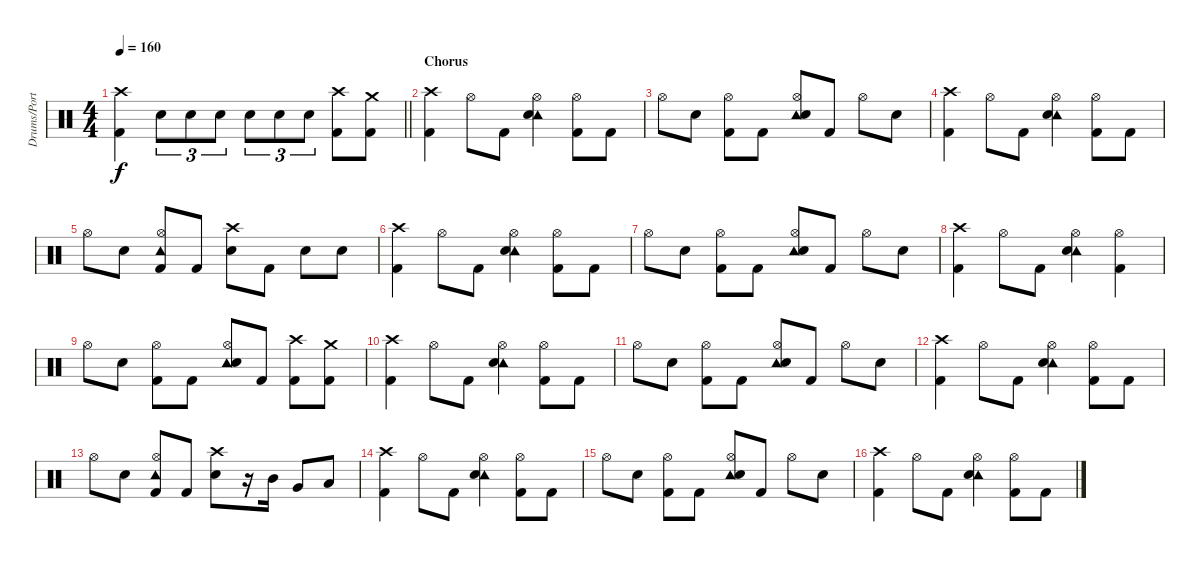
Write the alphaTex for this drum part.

\track ("Drums/Portnoy" "Drums/Port") {instrument percussion}
\staff {score}
\articulation defaults
\ts (4 4)
\tempo 160
\clef neutral
\barLineRight lightlight
\ks c
("Crash high (hit)" "Kick (hit) 2").4{dy f} "Electric Snare (hit)".8{tu (3 2)} "Electric Snare (hit)".8{tu (3 2)} "Electric Snare (hit)".8{tu (3 2)} "Electric Snare (hit)".8{tu (3 2)} "Electric Snare (hit)".8{tu (3 2)} "Electric Snare (hit)".8{tu (3 2)} ("Crash high (hit)" "Kick (hit) 2").8 ("Crash medium (hit)" "Kick (hit) 2").8 |
\section ("" "Chorus")
("Crash high (hit)" "Kick (hit) 2").4 "Hi-Hat (open)".8 "Kick (hit) 2".8 ("Tambourine (hit)" "Hi-Hat (open)" "Electric Snare (hit)").4 ("Hi-Hat (open)" "Kick (hit) 2").8 "Kick (hit) 2".8 |
"Hi-Hat (open)".8 "Electric Snare (hit)".8 ("Hi-Hat (open)" "Kick (hit) 2").8 "Kick (hit) 2".8 ("Tambourine (hit)" "Hi-Hat (open)" "Electric Snare (hit)").8 "Kick (hit) 2".8 "Hi-Hat (open)".8 "Electric Snare (hit)".8 |
("Crash high (hit)" "Kick (hit) 2").4 "Hi-Hat (open)".8 "Kick (hit) 2".8 ("Tambourine (hit)" "Hi-Hat (open)" "Electric Snare (hit)").4 ("Hi-Hat (open)" "Kick (hit) 2").8 "Kick (hit) 2".8 |
"Hi-Hat (open)".8 "Electric Snare (hit)".8 ("Tambourine (hit)" "Hi-Hat (open)" "Kick (hit) 2").8 "Kick (hit) 2".8 ("Crash high (hit)" "Electric Snare (hit)").8 "Kick (hit) 2".8 "Electric Snare (hit)".8 "Electric Snare (hit)".8 |
("Crash high (hit)" "Kick (hit) 2").4 "Hi-Hat (open)".8 "Kick (hit) 2".8 ("Tambourine (hit)" "Hi-Hat (open)" "Electric Snare (hit)").4 ("Hi-Hat (open)" "Kick (hit) 2").8 "Kick (hit) 2".8 |
"Hi-Hat (open)".8 "Electric Snare (hit)".8 ("Hi-Hat (open)" "Kick (hit) 2").8 "Kick (hit) 2".8 ("Tambourine (hit)" "Hi-Hat (open)" "Electric Snare (hit)").8 "Kick (hit) 2".8 "Hi-Hat (open)".8 "Electric Snare (hit)".8 |
("Crash high (hit)" "Kick (hit) 2").4 "Hi-Hat (open)".8 "Kick (hit) 2".8 ("Tambourine (hit)" "Hi-Hat (open)" "Electric Snare (hit)").4 ("Hi-Hat (open)" "Kick (hit) 2").4 |
"Hi-Hat (open)".8 "Electric Snare (hit)".8 ("Hi-Hat (open)" "Kick (hit) 2").8 "Kick (hit) 2".8 ("Tambourine (hit)" "Hi-Hat (open)" "Electric Snare (hit)").8 "Kick (hit) 2".8 ("Crash high (hit)" "Kick (hit) 2").8 ("Crash medium (hit)" "Kick (hit) 2").8 |
("Crash high (hit)" "Kick (hit) 2").4 "Hi-Hat (open)".8 "Kick (hit) 2".8 ("Tambourine (hit)" "Hi-Hat (open)" "Electric Snare (hit)").4 ("Hi-Hat (open)" "Kick (hit) 2").8 "Kick (hit) 2".8 |
"Hi-Hat (open)".8 "Electric Snare (hit)".8 ("Hi-Hat (open)" "Kick (hit) 2").8 "Kick (hit) 2".8 ("Tambourine (hit)" "Hi-Hat (open)" "Electric Snare (hit)").8 "Kick (hit) 2".8 "Hi-Hat (open)".8 "Electric Snare (hit)".8 |
("Crash high (hit)" "Kick (hit) 2").4 "Hi-Hat (open)".8 "Kick (hit) 2".8 ("Tambourine (hit)" "Hi-Hat (open)" "Electric Snare (hit)").4 ("Hi-Hat (open)" "Kick (hit) 2").8 "Kick (hit) 2".8 |
"Hi-Hat (open)".8 "Electric Snare (hit)".8 ("Tambourine (hit)" "Hi-Hat (open)" "Kick (hit) 2").8 "Kick (hit) 2".8 ("Crash high (hit)" "Electric Snare (hit)").8 r.16 "Mid Tom (hit)".16 "Very Low Tom (hit)".8 "Low Floor Tom (hit)".8 |
("Crash high (hit)" "Kick (hit) 2").4 "Hi-Hat (open)".8 "Kick (hit) 2".8 ("Tambourine (hit)" "Hi-Hat (open)" "Electric Snare (hit)").4 ("Hi-Hat (open)" "Kick (hit) 2").8 "Kick (hit) 2".8 |
"Hi-Hat (open)".8 "Electric Snare (hit)".8 ("Hi-Hat (open)" "Kick (hit) 2").8 "Kick (hit) 2".8 ("Tambourine (hit)" "Hi-Hat (open)" "Electric Snare (hit)").8 "Kick (hit) 2".8 "Hi-Hat (open)".8 "Electric Snare (hit)".8 |
("Crash high (hit)" "Kick (hit) 2").4 "Hi-Hat (open)".8 "Kick (hit) 2".8 ("Tambourine (hit)" "Hi-Hat (open)" "Electric Snare (hit)").4 ("Hi-Hat (open)" "Kick (hit) 2").8 "Kick (hit) 2".8
